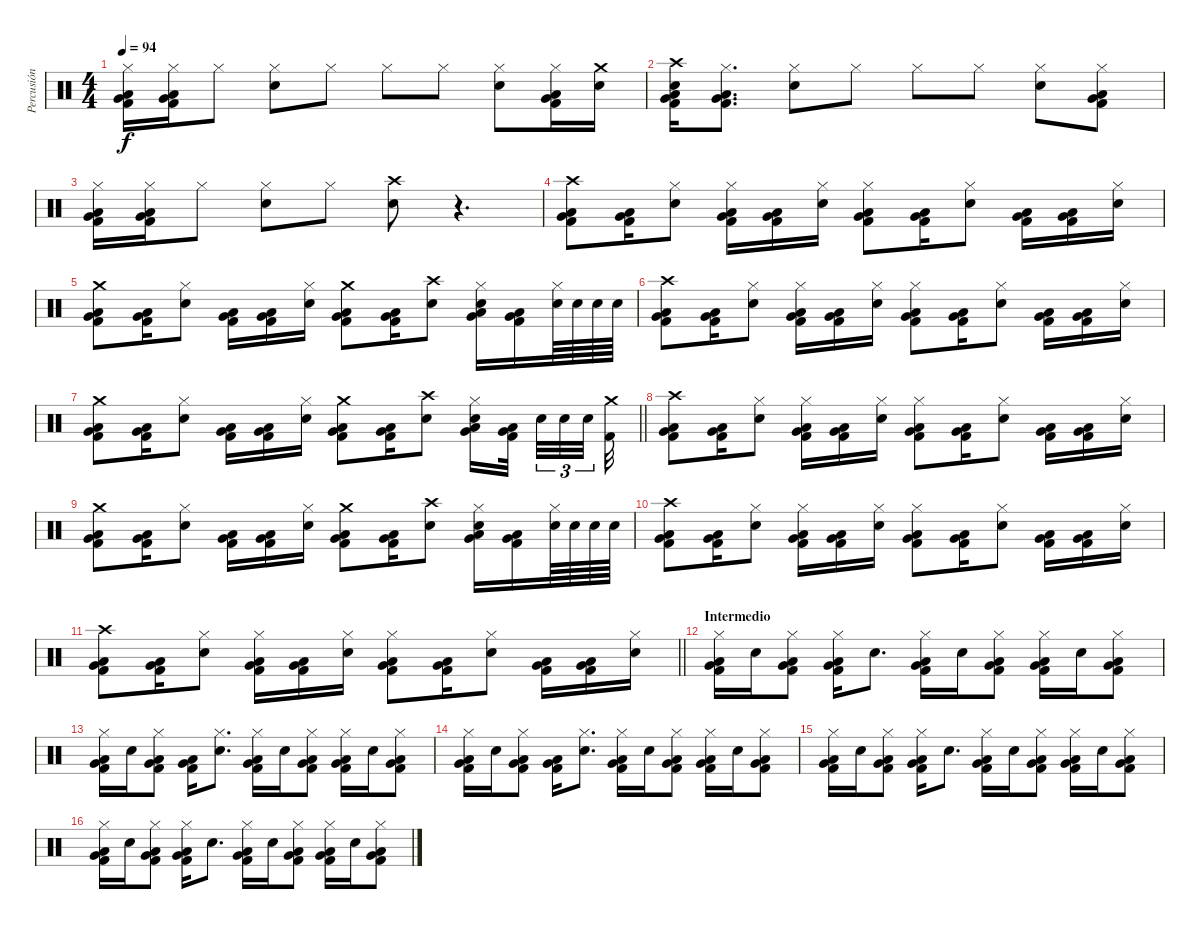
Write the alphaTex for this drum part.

\track ("Percusión" "Percusión") {instrument percussion}
\staff {score}
\articulation defaults
\ts (4 4)
\tempo 94
\clef neutral
\ks c
("Hi-Hat (closed)" "Kick (hit) 2" "Low Floor Tom (hit)" "Very Low Tom (hit)").16{dy f} ("Hi-Hat (closed)" "Kick (hit) 2" "Low Floor Tom (hit)" "Very Low Tom (hit)").16 "Hi-Hat (closed)".8 ("Hi-Hat (closed)" "Electric Snare (hit)").8 "Hi-Hat (closed)".8 "Hi-Hat (closed)".8 "Hi-Hat (closed)".8 ("Hi-Hat (closed)" "Electric Snare (hit)").8 ("Hi-Hat (closed)" "Kick (hit) 2" "Low Floor Tom (hit)" "Very Low Tom (hit)").16 ("Crash medium (hit)" "Electric Snare (hit)").16 |
("Crash high (hit)" "Electric Snare (hit)" "Low Floor Tom (hit)" "Kick (hit) 2" "Very Low Tom (hit)").16 ("Hi-Hat (closed)" "Low Floor Tom (hit)" "Kick (hit) 2" "Very Low Tom (hit)").8{d} ("Hi-Hat (closed)" "Electric Snare (hit)").8 "Hi-Hat (closed)".8 "Hi-Hat (closed)".8 "Hi-Hat (closed)".8 ("Hi-Hat (closed)" "Electric Snare (hit)").8 ("Hi-Hat (closed)" "Kick (hit) 2" "Low Floor Tom (hit)" "Very Low Tom (hit)").8 |
("Hi-Hat (closed)" "Kick (hit) 2" "Low Floor Tom (hit)" "Very Low Tom (hit)").16 ("Hi-Hat (closed)" "Kick (hit) 2" "Low Floor Tom (hit)" "Very Low Tom (hit)").16 "Hi-Hat (closed)".8 ("Hi-Hat (closed)" "Electric Snare (hit)").8 "Hi-Hat (closed)".8 ("Crash high (hit)" "Electric Snare (hit)").8 r.4{d} |
("Crash high (hit)" "Kick (hit) 2" "Low Floor Tom (hit)" "Very Low Tom (hit)").8 ("Kick (hit) 2" "Low Floor Tom (hit)" "Very Low Tom (hit)").16 ("Hi-Hat (closed)" "Electric Snare (hit)").8 ("Hi-Hat (closed)" "Kick (hit) 2" "Low Floor Tom (hit)" "Very Low Tom (hit)").16 ("Kick (hit) 2" "Low Floor Tom (hit)" "Very Low Tom (hit)").16 ("Hi-Hat (closed)" "Electric Snare (hit)").16 ("Hi-Hat (closed)" "Kick (hit) 2" "Low Floor Tom (hit)" "Very Low Tom (hit)").8 ("Kick (hit) 2" "Low Floor Tom (hit)" "Very Low Tom (hit)").16 ("Hi-Hat (closed)" "Electric Snare (hit)").8 ("Kick (hit) 2" "Low Floor Tom (hit)" "Very Low Tom (hit)").16 ("Kick (hit) 2" "Low Floor Tom (hit)" "Very Low Tom (hit)").16 ("Hi-Hat (closed)" "Electric Snare (hit)").16 |
("Crash medium (hit)" "Kick (hit) 2" "Low Floor Tom (hit)" "Very Low Tom (hit)").8 ("Kick (hit) 2" "Low Floor Tom (hit)" "Very Low Tom (hit)").16 ("Hi-Hat (closed)" "Electric Snare (hit)").8 ("Kick (hit) 2" "Low Floor Tom (hit)" "Very Low Tom (hit)").16 ("Kick (hit) 2" "Low Floor Tom (hit)" "Very Low Tom (hit)").16 ("Hi-Hat (closed)" "Electric Snare (hit)").16 ("Crash medium (hit)" "Kick (hit) 2" "Low Floor Tom (hit)" "Very Low Tom (hit)").8 ("Kick (hit) 2" "Low Floor Tom (hit)" "Very Low Tom (hit)").16 ("Crash high (hit)" "Electric Snare (hit)").8 ("Hi-Hat (closed)" "Electric Snare (hit)" "Low Floor Tom (hit)" "Very Low Tom (hit)").16 ("Kick (hit) 2" "Low Floor Tom (hit)" "Very Low Tom (hit)").16 ("Hi-Hat (closed)" "Electric Snare (hit)").64 "Electric Snare (hit)".64 "Electric Snare (hit)".64 "Electric Snare (hit)".64 |
("Crash high (hit)" "Kick (hit) 2" "Low Floor Tom (hit)" "Very Low Tom (hit)").8 ("Kick (hit) 2" "Low Floor Tom (hit)" "Very Low Tom (hit)").16 ("Hi-Hat (closed)" "Electric Snare (hit)").8 ("Hi-Hat (closed)" "Kick (hit) 2" "Low Floor Tom (hit)" "Very Low Tom (hit)").16 ("Kick (hit) 2" "Low Floor Tom (hit)" "Very Low Tom (hit)").16 ("Hi-Hat (closed)" "Electric Snare (hit)").16 ("Hi-Hat (closed)" "Kick (hit) 2" "Low Floor Tom (hit)" "Very Low Tom (hit)").8 ("Kick (hit) 2" "Low Floor Tom (hit)" "Very Low Tom (hit)").16 ("Hi-Hat (closed)" "Electric Snare (hit)").8 ("Kick (hit) 2" "Low Floor Tom (hit)" "Very Low Tom (hit)").16 ("Kick (hit) 2" "Low Floor Tom (hit)" "Very Low Tom (hit)").16 ("Hi-Hat (closed)" "Electric Snare (hit)").16 |
\barLineRight lightlight
("Crash medium (hit)" "Kick (hit) 2" "Low Floor Tom (hit)" "Very Low Tom (hit)").8 ("Kick (hit) 2" "Low Floor Tom (hit)" "Very Low Tom (hit)").16 ("Hi-Hat (closed)" "Electric Snare (hit)").8 ("Kick (hit) 2" "Low Floor Tom (hit)" "Very Low Tom (hit)").16 ("Kick (hit) 2" "Low Floor Tom (hit)" "Very Low Tom (hit)").16 ("Hi-Hat (closed)" "Electric Snare (hit)").16 ("Crash medium (hit)" "Kick (hit) 2" "Low Floor Tom (hit)" "Very Low Tom (hit)").8 ("Kick (hit) 2" "Low Floor Tom (hit)" "Very Low Tom (hit)").16 ("Crash high (hit)" "Electric Snare (hit)").8 ("Hi-Hat (closed)" "Electric Snare (hit)" "Low Floor Tom (hit)" "Very Low Tom (hit)").16 ("Kick (hit) 2" "Low Floor Tom (hit)" "Very Low Tom (hit)").32{beam splitsecondary} "Electric Snare (hit)".32{tu (3 2)} "Electric Snare (hit)".32{tu (3 2)} "Electric Snare (hit)".32{tu (3 2) beam splitsecondary} ("Crash medium (hit)" "Kick (hit) 2").32 |
("Crash high (hit)" "Kick (hit) 2" "Low Floor Tom (hit)" "Very Low Tom (hit)").8 ("Kick (hit) 2" "Low Floor Tom (hit)" "Very Low Tom (hit)").16 ("Hi-Hat (closed)" "Electric Snare (hit)").8 ("Hi-Hat (closed)" "Kick (hit) 2" "Low Floor Tom (hit)" "Very Low Tom (hit)").16 ("Kick (hit) 2" "Low Floor Tom (hit)" "Very Low Tom (hit)").16 ("Hi-Hat (closed)" "Electric Snare (hit)").16 ("Hi-Hat (closed)" "Kick (hit) 2" "Low Floor Tom (hit)" "Very Low Tom (hit)").8 ("Kick (hit) 2" "Low Floor Tom (hit)" "Very Low Tom (hit)").16 ("Hi-Hat (closed)" "Electric Snare (hit)").8 ("Kick (hit) 2" "Low Floor Tom (hit)" "Very Low Tom (hit)").16 ("Kick (hit) 2" "Low Floor Tom (hit)" "Very Low Tom (hit)").16 ("Hi-Hat (closed)" "Electric Snare (hit)").16 |
("Crash medium (hit)" "Kick (hit) 2" "Low Floor Tom (hit)" "Very Low Tom (hit)").8 ("Kick (hit) 2" "Low Floor Tom (hit)" "Very Low Tom (hit)").16 ("Hi-Hat (closed)" "Electric Snare (hit)").8 ("Kick (hit) 2" "Low Floor Tom (hit)" "Very Low Tom (hit)").16 ("Kick (hit) 2" "Low Floor Tom (hit)" "Very Low Tom (hit)").16 ("Hi-Hat (closed)" "Electric Snare (hit)").16 ("Crash medium (hit)" "Kick (hit) 2" "Low Floor Tom (hit)" "Very Low Tom (hit)").8 ("Kick (hit) 2" "Low Floor Tom (hit)" "Very Low Tom (hit)").16 ("Crash high (hit)" "Electric Snare (hit)").8 ("Hi-Hat (closed)" "Electric Snare (hit)" "Low Floor Tom (hit)" "Very Low Tom (hit)").16 ("Kick (hit) 2" "Low Floor Tom (hit)" "Very Low Tom (hit)").16 ("Hi-Hat (closed)" "Electric Snare (hit)").64 "Electric Snare (hit)".64 "Electric Snare (hit)".64 "Electric Snare (hit)".64 |
("Crash high (hit)" "Kick (hit) 2" "Low Floor Tom (hit)" "Very Low Tom (hit)").8 ("Kick (hit) 2" "Low Floor Tom (hit)" "Very Low Tom (hit)").16 ("Hi-Hat (closed)" "Electric Snare (hit)").8 ("Hi-Hat (closed)" "Kick (hit) 2" "Low Floor Tom (hit)" "Very Low Tom (hit)").16 ("Kick (hit) 2" "Low Floor Tom (hit)" "Very Low Tom (hit)").16 ("Hi-Hat (closed)" "Electric Snare (hit)").16 ("Hi-Hat (closed)" "Kick (hit) 2" "Low Floor Tom (hit)" "Very Low Tom (hit)").8 ("Kick (hit) 2" "Low Floor Tom (hit)" "Very Low Tom (hit)").16 ("Hi-Hat (closed)" "Electric Snare (hit)").8 ("Kick (hit) 2" "Low Floor Tom (hit)" "Very Low Tom (hit)").16 ("Kick (hit) 2" "Low Floor Tom (hit)" "Very Low Tom (hit)").16 ("Hi-Hat (closed)" "Electric Snare (hit)").16 |
\barLineRight lightlight
("Crash high (hit)" "Kick (hit) 2" "Low Floor Tom (hit)" "Very Low Tom (hit)").8 ("Kick (hit) 2" "Low Floor Tom (hit)" "Very Low Tom (hit)").16 ("Hi-Hat (closed)" "Electric Snare (hit)").8 ("Hi-Hat (closed)" "Kick (hit) 2" "Low Floor Tom (hit)" "Very Low Tom (hit)").16 ("Kick (hit) 2" "Low Floor Tom (hit)" "Very Low Tom (hit)").16 ("Hi-Hat (closed)" "Electric Snare (hit)").16 ("Hi-Hat (closed)" "Kick (hit) 2" "Low Floor Tom (hit)" "Very Low Tom (hit)").8 ("Kick (hit) 2" "Low Floor Tom (hit)" "Very Low Tom (hit)").16 ("Hi-Hat (closed)" "Electric Snare (hit)").8 ("Kick (hit) 2" "Low Floor Tom (hit)" "Very Low Tom (hit)").16 ("Kick (hit) 2" "Low Floor Tom (hit)" "Very Low Tom (hit)").16 ("Hi-Hat (closed)" "Electric Snare (hit)").16 |
\section ("" "Intermedio")
("Hi-Hat (closed)" "Kick (hit) 2" "Low Floor Tom (hit)" "Very Low Tom (hit)").16 "Electric Snare (hit)".16 ("Hi-Hat (closed)" "Kick (hit) 2" "Low Floor Tom (hit)" "Very Low Tom (hit)").8 ("Hi-Hat (closed)" "Kick (hit) 2" "Low Floor Tom (hit)" "Very Low Tom (hit)").16 "Electric Snare (hit)".8{d} ("Hi-Hat (closed)" "Kick (hit) 2" "Low Floor Tom (hit)" "Very Low Tom (hit)").16 "Electric Snare (hit)".16 ("Hi-Hat (closed)" "Kick (hit) 2" "Low Floor Tom (hit)" "Very Low Tom (hit)").8 ("Hi-Hat (closed)" "Kick (hit) 2" "Low Floor Tom (hit)" "Very Low Tom (hit)").16 "Electric Snare (hit)".16 ("Hi-Hat (closed)" "Kick (hit) 2" "Low Floor Tom (hit)" "Very Low Tom (hit)").8 |
("Hi-Hat (closed)" "Kick (hit) 2" "Low Floor Tom (hit)" "Very Low Tom (hit)").16 "Electric Snare (hit)".16 ("Hi-Hat (closed)" "Kick (hit) 2" "Low Floor Tom (hit)" "Very Low Tom (hit)").8 ("Kick (hit) 2" "Low Floor Tom (hit)" "Very Low Tom (hit)").16 ("Hi-Hat (closed)" "Electric Snare (hit)").8{d} ("Hi-Hat (closed)" "Kick (hit) 2" "Low Floor Tom (hit)" "Very Low Tom (hit)").16 "Electric Snare (hit)".16 ("Hi-Hat (closed)" "Kick (hit) 2" "Low Floor Tom (hit)" "Very Low Tom (hit)").8 ("Hi-Hat (closed)" "Kick (hit) 2" "Low Floor Tom (hit)" "Very Low Tom (hit)").16 "Electric Snare (hit)".16 ("Hi-Hat (closed)" "Kick (hit) 2" "Low Floor Tom (hit)" "Very Low Tom (hit)").8 |
("Hi-Hat (closed)" "Kick (hit) 2" "Low Floor Tom (hit)" "Very Low Tom (hit)").16 "Electric Snare (hit)".16 ("Hi-Hat (closed)" "Kick (hit) 2" "Low Floor Tom (hit)" "Very Low Tom (hit)").8 ("Kick (hit) 2" "Low Floor Tom (hit)" "Very Low Tom (hit)").16 ("Hi-Hat (closed)" "Electric Snare (hit)").8{d} ("Hi-Hat (closed)" "Kick (hit) 2" "Low Floor Tom (hit)" "Very Low Tom (hit)").16 "Electric Snare (hit)".16 ("Hi-Hat (closed)" "Kick (hit) 2" "Low Floor Tom (hit)" "Very Low Tom (hit)").8 ("Hi-Hat (closed)" "Kick (hit) 2" "Low Floor Tom (hit)" "Very Low Tom (hit)").16 "Electric Snare (hit)".16 ("Hi-Hat (closed)" "Kick (hit) 2" "Low Floor Tom (hit)" "Very Low Tom (hit)").8 |
("Hi-Hat (closed)" "Kick (hit) 2" "Low Floor Tom (hit)" "Very Low Tom (hit)").16 "Electric Snare (hit)".16 ("Hi-Hat (closed)" "Kick (hit) 2" "Low Floor Tom (hit)" "Very Low Tom (hit)").8 ("Hi-Hat (closed)" "Kick (hit) 2" "Low Floor Tom (hit)" "Very Low Tom (hit)").16 "Electric Snare (hit)".8{d} ("Hi-Hat (closed)" "Kick (hit) 2" "Low Floor Tom (hit)" "Very Low Tom (hit)").16 "Electric Snare (hit)".16 ("Hi-Hat (closed)" "Kick (hit) 2" "Low Floor Tom (hit)" "Very Low Tom (hit)").8 ("Hi-Hat (closed)" "Kick (hit) 2" "Low Floor Tom (hit)" "Very Low Tom (hit)").16 "Electric Snare (hit)".16 ("Hi-Hat (closed)" "Kick (hit) 2" "Low Floor Tom (hit)" "Very Low Tom (hit)").8 |
("Hi-Hat (closed)" "Kick (hit) 2" "Low Floor Tom (hit)" "Very Low Tom (hit)").16 "Electric Snare (hit)".16 ("Hi-Hat (closed)" "Kick (hit) 2" "Low Floor Tom (hit)" "Very Low Tom (hit)").8 ("Hi-Hat (closed)" "Kick (hit) 2" "Low Floor Tom (hit)" "Very Low Tom (hit)").16 "Electric Snare (hit)".8{d} ("Hi-Hat (closed)" "Kick (hit) 2" "Low Floor Tom (hit)" "Very Low Tom (hit)").16 "Electric Snare (hit)".16 ("Hi-Hat (closed)" "Kick (hit) 2" "Low Floor Tom (hit)" "Very Low Tom (hit)").8 ("Hi-Hat (closed)" "Kick (hit) 2" "Low Floor Tom (hit)" "Very Low Tom (hit)").16 "Electric Snare (hit)".16 ("Hi-Hat (closed)" "Kick (hit) 2" "Low Floor Tom (hit)" "Very Low Tom (hit)").8
